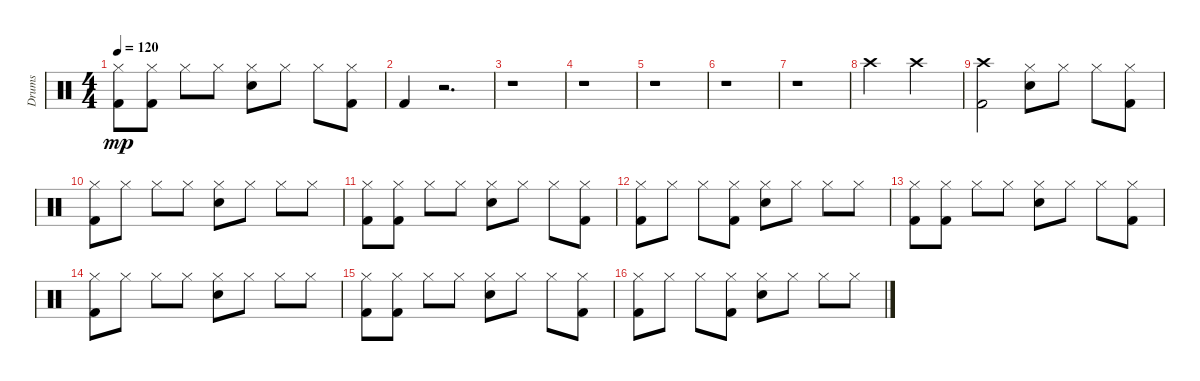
\track ("Drums" "Drums") {instrument percussion}
\staff {score}
\articulation defaults
\ts (4 4)
\tempo 120
\clef neutral
\ks c
("Hi-Hat (closed)" "Kick (hit) 2").8{dy mp} ("Hi-Hat (closed)" "Kick (hit) 2").8 "Hi-Hat (closed)".8 "Hi-Hat (closed)".8 ("Hi-Hat (closed)" "Snare (hit) 2").8 "Hi-Hat (closed)".8 "Hi-Hat (closed)".8 ("Hi-Hat (closed)" "Kick (hit) 2").8 |
"Kick (hit) 2".4 r.2{d} |
r.1 |
r.1 |
r.1 |
r.1 |
r.1 |
"Crash high (hit)".2 "Crash high (hit)".2 |
("Crash high (hit)" "Kick (hit) 2").2 ("Hi-Hat (closed)" "Snare (hit) 2").8 "Hi-Hat (closed)".8 "Hi-Hat (closed)".8 ("Hi-Hat (closed)" "Kick (hit) 2").8 |
("Hi-Hat (closed)" "Kick (hit) 2").8 "Hi-Hat (closed)".8 "Hi-Hat (closed)".8 "Hi-Hat (closed)".8 ("Hi-Hat (closed)" "Snare (hit) 2").8 "Hi-Hat (closed)".8 "Hi-Hat (closed)".8 "Hi-Hat (closed)".8 |
("Hi-Hat (closed)" "Kick (hit) 2").8 ("Hi-Hat (closed)" "Kick (hit) 2").8 "Hi-Hat (closed)".8 "Hi-Hat (closed)".8 ("Hi-Hat (closed)" "Snare (hit) 2").8 "Hi-Hat (closed)".8 "Hi-Hat (closed)".8 ("Hi-Hat (closed)" "Kick (hit) 2").8 |
("Hi-Hat (closed)" "Kick (hit) 2").8 "Hi-Hat (closed)".8 "Hi-Hat (closed)".8 ("Hi-Hat (closed)" "Kick (hit) 2").8 ("Hi-Hat (closed)" "Snare (hit) 2").8 "Hi-Hat (closed)".8 "Hi-Hat (closed)".8 "Hi-Hat (closed)".8 |
("Hi-Hat (closed)" "Kick (hit) 2").8 ("Hi-Hat (closed)" "Kick (hit) 2").8 "Hi-Hat (closed)".8 "Hi-Hat (closed)".8 ("Hi-Hat (closed)" "Snare (hit) 2").8 "Hi-Hat (closed)".8 "Hi-Hat (closed)".8 ("Hi-Hat (closed)" "Kick (hit) 2").8 |
("Hi-Hat (closed)" "Kick (hit) 2").8 "Hi-Hat (closed)".8 "Hi-Hat (closed)".8 "Hi-Hat (closed)".8 ("Hi-Hat (closed)" "Snare (hit) 2").8 "Hi-Hat (closed)".8 "Hi-Hat (closed)".8 "Hi-Hat (closed)".8 |
("Hi-Hat (closed)" "Kick (hit) 2").8 ("Hi-Hat (closed)" "Kick (hit) 2").8 "Hi-Hat (closed)".8 "Hi-Hat (closed)".8 ("Hi-Hat (closed)" "Snare (hit) 2").8 "Hi-Hat (closed)".8 "Hi-Hat (closed)".8 ("Hi-Hat (closed)" "Kick (hit) 2").8 |
("Hi-Hat (closed)" "Kick (hit) 2").8 "Hi-Hat (closed)".8 "Hi-Hat (closed)".8 ("Hi-Hat (closed)" "Kick (hit) 2").8 ("Hi-Hat (closed)" "Snare (hit) 2").8 "Hi-Hat (closed)".8 "Hi-Hat (closed)".8 "Hi-Hat (closed)".8
